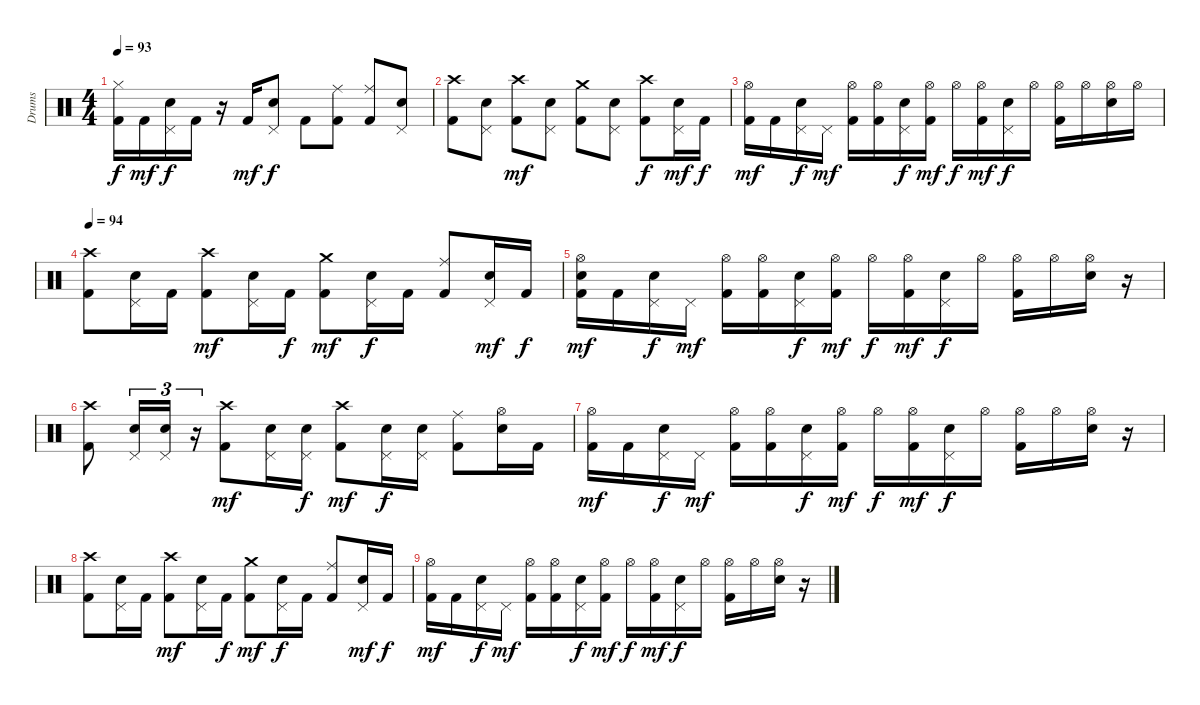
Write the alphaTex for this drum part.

\track ("Drums" "Drums") {instrument percussion}
\staff {score}
\articulation defaults
\ts (4 4)
\tempo 93
\clef neutral
\ks c
("Hi-Hat (closed)" "Kick (hit) 2").16{dy f} "Kick (hit) 2".16{dy mf} ("Pedal Hi-Hat (hit)" "Snare (hit) 2").16{dy f} "Kick (hit) 2".16 r.16 "Kick (hit) 2".16{dy mf} ("Pedal Hi-Hat (hit)" "Snare (hit) 2").8{dy f} "Kick (hit) 2".8 ("Ride (middle)" "Kick (hit) 2").8 ("Ride (middle)" "Kick (hit) 2").8 ("Pedal Hi-Hat (hit)" "Snare (hit) 2").8 |
("Crash high (hit)" "Kick (hit) 2").8 ("Pedal Hi-Hat (hit)" "Snare (hit) 2").8 ("Crash high (hit)" "Kick (hit) 2").8{dy mf} ("Pedal Hi-Hat (hit)" "Snare (hit) 2").8 ("Crash medium (hit)" "Kick (hit) 2").8 ("Pedal Hi-Hat (hit)" "Snare (hit) 2").8 ("Crash high (hit)" "Kick (hit) 2").8{dy f} ("Pedal Hi-Hat (hit)" "Snare (hit) 2").16{dy mf} "Kick (hit) 2".16{dy f} |
("Hi-Hat (open)" "Kick (hit) 2").16{dy mf} "Kick (hit) 2".16 ("Pedal Hi-Hat (hit)" "Snare (hit) 2").16{dy f} "Pedal Hi-Hat (hit)".16{dy mf} ("Hi-Hat (open)" "Kick (hit) 2").16 ("Hi-Hat (open)" "Kick (hit) 2").16 ("Pedal Hi-Hat (hit)" "Snare (hit) 2").16{dy f} ("Hi-Hat (open)" "Kick (hit) 2").16{dy mf} "Hi-Hat (open)".16{dy f} ("Hi-Hat (open)" "Kick (hit) 2").16{dy mf} ("Pedal Hi-Hat (hit)" "Snare (hit) 2").16{dy f} "Hi-Hat (open)".16 ("Hi-Hat (open)" "Kick (hit) 2").16 "Hi-Hat (open)".16 ("Hi-Hat (open)" "Snare (hit) 2").16 "Hi-Hat (open)".16 |
\tempo 94
("Crash high (hit)" "Kick (hit) 2").8 ("Pedal Hi-Hat (hit)" "Snare (hit) 2").16 "Kick (hit) 2".16 ("Crash high (hit)" "Kick (hit) 2").8{dy mf} ("Pedal Hi-Hat (hit)" "Snare (hit) 2").16 "Kick (hit) 2".16{dy f} ("Crash medium (hit)" "Kick (hit) 2").8{dy mf} ("Pedal Hi-Hat (hit)" "Snare (hit) 2").16{dy f} "Kick (hit) 2".16 ("Ride (middle)" "Kick (hit) 2").8 ("Pedal Hi-Hat (hit)" "Snare (hit) 2").16{dy mf} "Kick (hit) 2".16{dy f} |
("Hi-Hat (open)" "Snare (hit) 2" "Kick (hit) 2").16{dy mf} "Kick (hit) 2".16 ("Pedal Hi-Hat (hit)" "Snare (hit) 2").16{dy f} "Pedal Hi-Hat (hit)".16{dy mf} ("Hi-Hat (open)" "Kick (hit) 2").16 ("Hi-Hat (open)" "Kick (hit) 2").16 ("Pedal Hi-Hat (hit)" "Snare (hit) 2").16{dy f} ("Hi-Hat (open)" "Kick (hit) 2").16{dy mf} "Hi-Hat (open)".16{dy f} ("Hi-Hat (open)" "Kick (hit) 2").16{dy mf} ("Pedal Hi-Hat (hit)" "Snare (hit) 2").16{dy f} "Hi-Hat (open)".16 ("Hi-Hat (open)" "Kick (hit) 2").16 "Hi-Hat (open)".16 ("Hi-Hat (open)" "Snare (hit) 2").16 r.16 |
("Crash high (hit)" "Kick (hit) 2").8{volume 0} ("Pedal Hi-Hat (hit)" "Snare (hit) 2").16{tu (3 2)} ("Pedal Hi-Hat (hit)" "Snare (hit) 2").16{tu (3 2)} r.16{tu (3 2)} ("Crash high (hit)" "Kick (hit) 2").8{dy mf} ("Pedal Hi-Hat (hit)" "Snare (hit) 2").16 ("Pedal Hi-Hat (hit)" "Snare (hit) 2").16{dy f} ("Crash high (hit)" "Kick (hit) 2").8{dy mf} ("Pedal Hi-Hat (hit)" "Snare (hit) 2").16{dy f} ("Pedal Hi-Hat (hit)" "Snare (hit) 2").16 ("Ride (middle)" "Kick (hit) 2").8 ("Hi-Hat (open)" "Snare (hit) 2").16 "Kick (hit) 2".16 |
("Hi-Hat (open)" "Kick (hit) 2").16{dy mf} "Kick (hit) 2".16 ("Pedal Hi-Hat (hit)" "Snare (hit) 2").16{dy f} "Pedal Hi-Hat (hit)".16{dy mf} ("Hi-Hat (open)" "Kick (hit) 2").16 ("Hi-Hat (open)" "Kick (hit) 2").16 ("Pedal Hi-Hat (hit)" "Snare (hit) 2").16{dy f} ("Hi-Hat (open)" "Kick (hit) 2").16{dy mf} "Hi-Hat (open)".16{dy f} ("Hi-Hat (open)" "Kick (hit) 2").16{dy mf} ("Pedal Hi-Hat (hit)" "Snare (hit) 2").16{dy f} "Hi-Hat (open)".16 ("Hi-Hat (open)" "Kick (hit) 2").16 "Hi-Hat (open)".16 ("Hi-Hat (open)" "Snare (hit) 2").16 r.16 |
("Crash high (hit)" "Kick (hit) 2").8 ("Pedal Hi-Hat (hit)" "Snare (hit) 2").16 "Kick (hit) 2".16 ("Crash high (hit)" "Kick (hit) 2").8{dy mf} ("Pedal Hi-Hat (hit)" "Snare (hit) 2").16 "Kick (hit) 2".16{dy f} ("Crash medium (hit)" "Kick (hit) 2").8{dy mf} ("Pedal Hi-Hat (hit)" "Snare (hit) 2").16{dy f} "Kick (hit) 2".16 ("Ride (middle)" "Kick (hit) 2").8 ("Pedal Hi-Hat (hit)" "Snare (hit) 2").16{dy mf} "Kick (hit) 2".16{dy f} |
("Hi-Hat (open)" "Kick (hit) 2").16{dy mf} "Kick (hit) 2".16 ("Pedal Hi-Hat (hit)" "Snare (hit) 2").16{dy f} "Pedal Hi-Hat (hit)".16{dy mf} ("Hi-Hat (open)" "Kick (hit) 2").16 ("Hi-Hat (open)" "Kick (hit) 2").16 ("Pedal Hi-Hat (hit)" "Snare (hit) 2").16{dy f} ("Hi-Hat (open)" "Kick (hit) 2").16{dy mf} "Hi-Hat (open)".16{dy f} ("Hi-Hat (open)" "Kick (hit) 2").16{dy mf} ("Pedal Hi-Hat (hit)" "Snare (hit) 2").16{dy f} "Hi-Hat (open)".16 ("Hi-Hat (open)" "Kick (hit) 2").16 "Hi-Hat (open)".16 ("Hi-Hat (open)" "Snare (hit) 2").16 r.16
